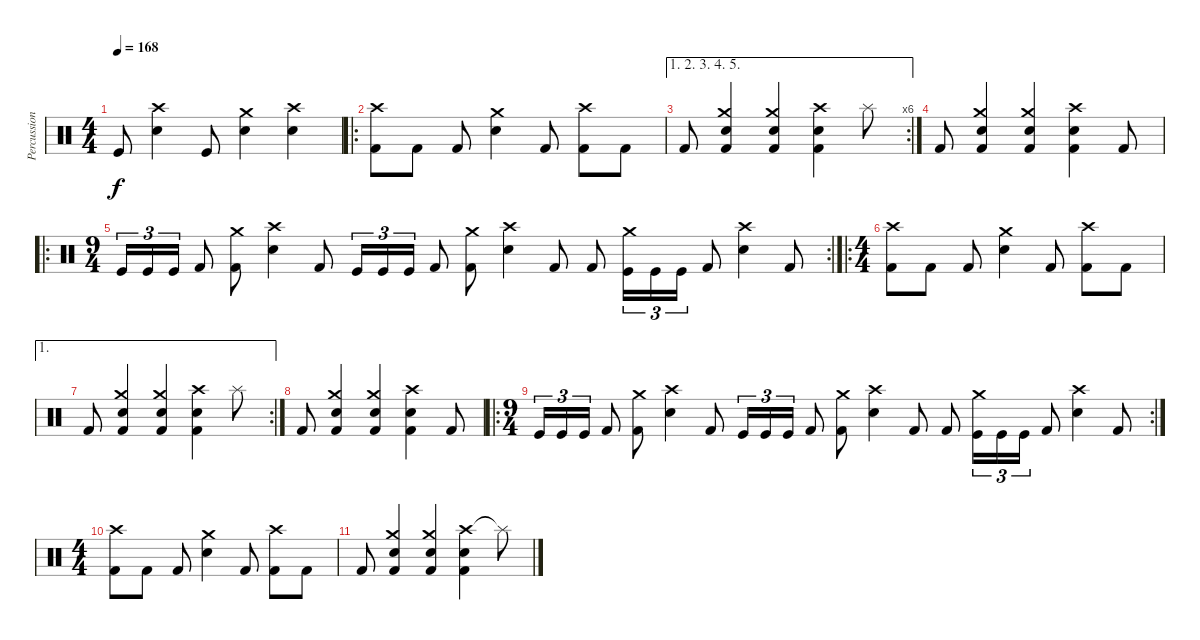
\track ("Percussion" "Percussion") {instrument percussion}
\staff {score}
\articulation defaults
\ts (4 4)
\tempo 168
\clef neutral
\ks c "Kick (hit)".8{dy f}
("Crash high (hit)" "Electric Snare (hit)").4 "Kick (hit)".8 ("Crash medium (hit)" "Electric Snare (hit)").4 ("Crash high (hit)" "Electric Snare (hit)").4 |
\ro
("Crash high (hit)" "Kick (hit) 2").8 "Kick (hit) 2".8 "Kick (hit) 2".8 ("Crash medium (hit)" "Electric Snare (hit)").4 "Kick (hit) 2".8 ("Crash high (hit)" "Kick (hit) 2").8 "Kick (hit) 2".8 |
\ae (1 2 3 4 5)
\rc 6 "Kick (hit) 2".8
("Crash medium (hit)" "Electric Snare (hit)" "Kick (hit) 2").4 ("Crash medium (hit)" "Electric Snare (hit)" "Kick (hit) 2").4 ("Crash high (hit)" "Electric Snare (hit)" "Kick (hit) 2").4 "Splash (hit)".8 |
"Kick (hit) 2".8 ("Crash medium (hit)" "Electric Snare (hit)" "Kick (hit) 2").4 ("Crash medium (hit)" "Electric Snare (hit)" "Kick (hit) 2").4 ("Crash high (hit)" "Electric Snare (hit)" "Kick (hit) 2").4 "Kick (hit) 2".8 |
\ro
\rc 2
\ts (9 4)
"Kick (hit)".16{tu (3 2)} "Kick (hit)".16{tu (3 2)} "Kick (hit)".16{tu (3 2)} "Kick (hit) 2".8 ("Crash medium (hit)" "Kick (hit) 2").8 ("Crash high (hit)" "Electric Snare (hit)").4 "Kick (hit) 2".8 "Kick (hit)".16{tu (3 2)} "Kick (hit)".16{tu (3 2)} "Kick (hit)".16{tu (3 2)} "Kick (hit) 2".8 ("Crash medium (hit)" "Kick (hit) 2").8 ("Crash high (hit)" "Electric Snare (hit)").4 "Kick (hit) 2".8 "Kick (hit) 2".8 ("Crash medium (hit)" "Kick (hit)").16{tu (3 2)} "Kick (hit)".16{tu (3 2)} "Kick (hit)".16{tu (3 2)} "Kick (hit) 2".8 ("Crash high (hit)" "Electric Snare (hit)").4 "Kick (hit) 2".8 |
\ro
\ts (4 4)
("Crash high (hit)" "Kick (hit) 2").8 "Kick (hit) 2".8 "Kick (hit) 2".8 ("Crash medium (hit)" "Electric Snare (hit)").4 "Kick (hit) 2".8 ("Crash high (hit)" "Kick (hit) 2").8 "Kick (hit) 2".8 |
\ae 1
\rc 2 "Kick (hit) 2".8
("Crash medium (hit)" "Electric Snare (hit)" "Kick (hit) 2").4 ("Crash medium (hit)" "Electric Snare (hit)" "Kick (hit) 2").4 ("Crash high (hit)" "Electric Snare (hit)" "Kick (hit) 2").4 "Splash (hit)".8 |
"Kick (hit) 2".8 ("Crash medium (hit)" "Electric Snare (hit)" "Kick (hit) 2").4 ("Crash medium (hit)" "Electric Snare (hit)" "Kick (hit) 2").4 ("Crash high (hit)" "Electric Snare (hit)" "Kick (hit) 2").4 "Kick (hit) 2".8 |
\ro
\rc 2
\ts (9 4)
"Kick (hit)".16{tu (3 2)} "Kick (hit)".16{tu (3 2)} "Kick (hit)".16{tu (3 2)} "Kick (hit) 2".8 ("Crash medium (hit)" "Kick (hit) 2").8 ("Crash high (hit)" "Electric Snare (hit)").4 "Kick (hit) 2".8 "Kick (hit)".16{tu (3 2)} "Kick (hit)".16{tu (3 2)} "Kick (hit)".16{tu (3 2)} "Kick (hit) 2".8 ("Crash medium (hit)" "Kick (hit) 2").8 ("Crash high (hit)" "Electric Snare (hit)").4 "Kick (hit) 2".8 "Kick (hit) 2".8 ("Crash medium (hit)" "Kick (hit)").16{tu (3 2)} "Kick (hit)".16{tu (3 2)} "Kick (hit)".16{tu (3 2)} "Kick (hit) 2".8 ("Crash high (hit)" "Electric Snare (hit)").4 "Kick (hit) 2".8 |
\ts (4 4)
("Crash high (hit)" "Kick (hit) 2").8 "Kick (hit) 2".8 "Kick (hit) 2".8 ("Crash medium (hit)" "Electric Snare (hit)").4 "Kick (hit) 2".8 ("Crash high (hit)" "Kick (hit) 2").8 "Kick (hit) 2".8 |
"Kick (hit) 2".8 ("Crash medium (hit)" "Electric Snare (hit)" "Kick (hit) 2").4 ("Crash medium (hit)" "Electric Snare (hit)" "Kick (hit) 2").4 ("Crash high (hit)" "Electric Snare (hit)" "Kick (hit) 2").4 "Splash (hit)"{t}.8
